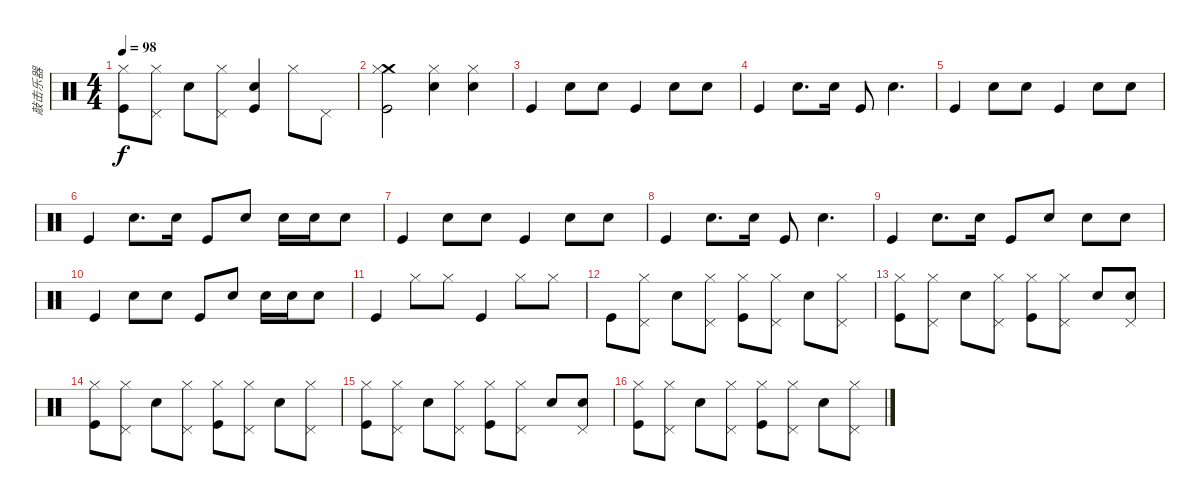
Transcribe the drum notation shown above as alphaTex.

\track ("敲击乐器" "敲击乐器") {instrument percussion}
\staff {score}
\articulation defaults
\ts (4 4)
\tempo 98
\clef neutral
\ks c
("Hi-Hat (closed)" "Kick (hit)").8{dy f} ("Pedal Hi-Hat (hit)" "Hi-Hat (closed)").8 "Snare (hit) 2".8 ("Pedal Hi-Hat (hit)" "Hi-Hat (closed)").8 ("Snare (hit) 2" "Kick (hit)").4 "Hi-Hat (closed)".8 "Pedal Hi-Hat (hit)".8 |
("Crash medium (hit)" "Hi-Hat (closed)" "Kick (hit)").2 ("Hi-Hat (closed)" "Snare (hit) 2").4 ("Hi-Hat (closed)" "Snare (hit) 2").4 |
"Kick (hit)".4 "Snare (hit) 2".8 "Snare (hit) 2".8 "Kick (hit)".4 "Snare (hit) 2".8 "Snare (hit) 2".8 |
"Kick (hit)".4 "Snare (hit) 2".8{d} "Snare (hit) 2".16 "Kick (hit)".8 "Snare (hit) 2".4{d} |
"Kick (hit)".4 "Snare (hit) 2".8 "Snare (hit) 2".8 "Kick (hit)".4 "Snare (hit) 2".8 "Snare (hit) 2".8 |
"Kick (hit)".4 "Snare (hit) 2".8{d} "Snare (hit) 2".16 "Kick (hit)".8 "Snare (hit) 2".8 "Snare (hit) 2".16 "Snare (hit) 2".16 "Snare (hit) 2".8 |
"Kick (hit)".4 "Snare (hit) 2".8 "Snare (hit) 2".8 "Kick (hit)".4 "Snare (hit) 2".8 "Snare (hit) 2".8 |
"Kick (hit)".4 "Snare (hit) 2".8{d} "Snare (hit) 2".16 "Kick (hit)".8 "Snare (hit) 2".4{d} |
"Kick (hit)".4 "Snare (hit) 2".8{d} "Snare (hit) 2".16 "Kick (hit)".8 "Snare (hit) 2".8 "Snare (hit) 2".8 "Snare (hit) 2".8 |
"Kick (hit)".4 "Snare (hit) 2".8 "Snare (hit) 2".8 "Kick (hit)".8 "Snare (hit) 2".8 "Snare (hit) 2".16 "Snare (hit) 2".16 "Snare (hit) 2".8 |
"Kick (hit)".4 "Hi-Hat (closed)".8 "Hi-Hat (closed)".8 "Kick (hit)".4 "Hi-Hat (closed)".8 "Hi-Hat (closed)".8 |
"Kick (hit)".8 ("Pedal Hi-Hat (hit)" "Hi-Hat (closed)").8 "Snare (hit) 2".8 ("Pedal Hi-Hat (hit)" "Hi-Hat (closed)").8 ("Hi-Hat (closed)" "Kick (hit)").8 ("Pedal Hi-Hat (hit)" "Hi-Hat (closed)").8 "Snare (hit) 2".8 ("Pedal Hi-Hat (hit)" "Hi-Hat (closed)").8 |
("Hi-Hat (closed)" "Kick (hit)").8 ("Pedal Hi-Hat (hit)" "Hi-Hat (closed)").8 "Snare (hit) 2".8 ("Pedal Hi-Hat (hit)" "Hi-Hat (closed)").8 ("Hi-Hat (closed)" "Kick (hit)").8 ("Pedal Hi-Hat (hit)" "Hi-Hat (closed)").8 "Snare (hit) 2".8 ("Pedal Hi-Hat (hit)" "Snare (hit) 2").8 |
("Hi-Hat (closed)" "Kick (hit)").8 ("Pedal Hi-Hat (hit)" "Hi-Hat (closed)").8 "Snare (hit) 2".8 ("Pedal Hi-Hat (hit)" "Hi-Hat (closed)").8 ("Hi-Hat (closed)" "Kick (hit)").8 ("Pedal Hi-Hat (hit)" "Hi-Hat (closed)").8 "Snare (hit) 2".8 ("Pedal Hi-Hat (hit)" "Hi-Hat (closed)").8 |
("Hi-Hat (closed)" "Kick (hit)").8 ("Pedal Hi-Hat (hit)" "Hi-Hat (closed)").8 "Snare (hit) 2".8 ("Pedal Hi-Hat (hit)" "Hi-Hat (closed)").8 ("Hi-Hat (closed)" "Kick (hit)").8 ("Pedal Hi-Hat (hit)" "Hi-Hat (closed)").8 "Snare (hit) 2".8 ("Pedal Hi-Hat (hit)" "Snare (hit) 2").8 |
("Hi-Hat (closed)" "Kick (hit)").8 ("Pedal Hi-Hat (hit)" "Hi-Hat (closed)").8 "Snare (hit) 2".8 ("Pedal Hi-Hat (hit)" "Hi-Hat (closed)").8 ("Hi-Hat (closed)" "Kick (hit)").8 ("Pedal Hi-Hat (hit)" "Hi-Hat (closed)").8 "Snare (hit) 2".8 ("Pedal Hi-Hat (hit)" "Hi-Hat (closed)").8
